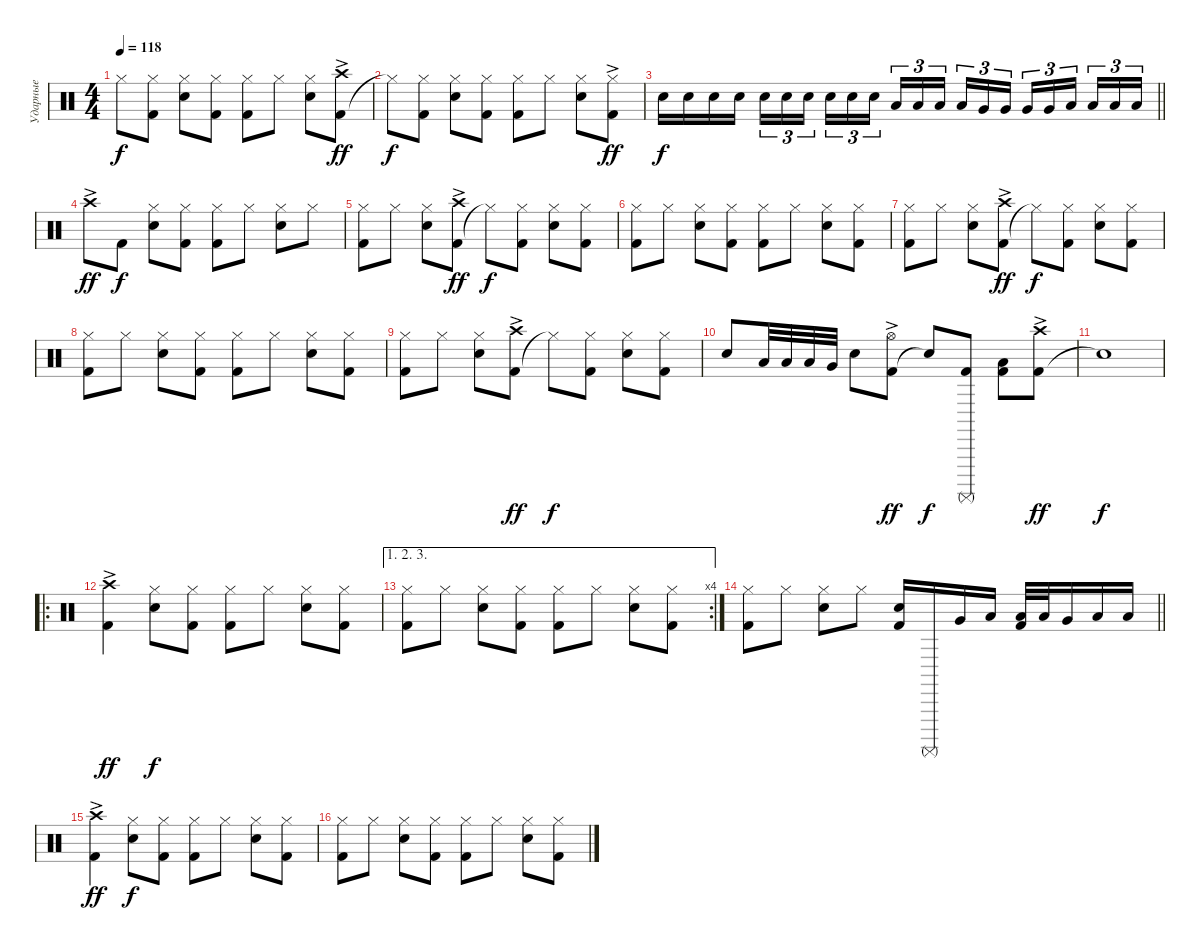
\track ("Ударные" "Ударные") {instrument percussion}
\staff
\articulation defaults
\ts (4 4)
\tempo 118
\clef neutral
\ks c "Hi-Hat (closed)"{t}.8{dy f}
("Kick (hit) 2" "Hi-Hat (closed)").8 ("Snare (hit) 2" "Hi-Hat (closed)").8 ("Kick (hit) 2" "Hi-Hat (closed)").8 ("Kick (hit) 2" "Hi-Hat (closed)").8 "Hi-Hat (closed)".8 ("Snare (hit) 2" "Hi-Hat (closed)").8 ("Kick (hit) 2" "Crash high (hit)"{ac}).8{dy ff} |
"Hi-Hat (closed)"{t}.8{dy f} ("Kick (hit) 2" "Hi-Hat (closed)").8 ("Snare (hit) 2" "Hi-Hat (closed)").8 ("Kick (hit) 2" "Hi-Hat (closed)").8 ("Kick (hit) 2" "Hi-Hat (closed)").8 "Hi-Hat (closed)".8 ("Snare (hit) 2" "Hi-Hat (closed)").8 ("Kick (hit) 2" "Hi-Hat (closed)"{ac}).8{dy ff} |
\barLineRight lightlight "Snare (hit) 2".16{dy f} "Snare (hit) 2".16 "Snare (hit) 2".16 "Snare (hit) 2".16 "Snare (hit) 2".16{tu (3 2)} "Electric Snare (hit)".16{tu (3 2)} "Electric Snare (hit)".16{tu (3 2) beam splitsecondary} "Electric Snare (hit)".16{tu (3 2)} "Electric Snare (hit)".16{tu (3 2)} "Electric Snare (hit)".16{tu (3 2)} "Low Tom (hit)".16{tu (3 2)} "Low Tom (hit)".16{tu (3 2)} "Low Tom (hit)".16{tu (3 2) beam splitsecondary} "Low Tom (hit)".16{tu (3 2)} "Very Low Tom (hit)".16{tu (3 2)} "Very Low Tom (hit)".16{tu (3 2)} "Very Low Tom (hit)".16{tu (3 2)} "Very Low Tom (hit)".16{tu (3 2)} "Low Floor Tom (hit)".16{tu (3 2) beam splitsecondary} "Low Floor Tom (hit)".16{tu (3 2)} "Low Floor Tom (hit)".16{tu (3 2)} "Low Floor Tom (hit)".16{tu (3 2)}
|
"Crash high (hit)"{ac}.8{dy ff} "Kick (hit) 2".8{dy f} ("Snare (hit) 2" "Hi-Hat (closed)").8 ("Kick (hit) 2" "Hi-Hat (closed)").8 ("Kick (hit) 2" "Hi-Hat (closed)").8 "Hi-Hat (closed)".8 ("Snare (hit) 2" "Hi-Hat (closed)").8 "Hi-Hat (closed)".8 |
("Kick (hit) 2" "Hi-Hat (closed)").8 "Hi-Hat (closed)".8 ("Snare (hit) 2" "Hi-Hat (closed)").8 ("Kick (hit) 2" "Crash high (hit)"{ac}).8{dy ff} "Hi-Hat (closed)"{t}.8{dy f} ("Kick (hit) 2" "Hi-Hat (closed)").8 ("Snare (hit) 2" "Hi-Hat (closed)").8 ("Kick (hit) 2" "Hi-Hat (closed)").8 |
("Kick (hit) 2" "Hi-Hat (closed)").8 "Hi-Hat (closed)".8 ("Snare (hit) 2" "Hi-Hat (closed)").8 ("Kick (hit) 2" "Hi-Hat (closed)").8 ("Kick (hit) 2" "Hi-Hat (closed)").8 "Hi-Hat (closed)".8 ("Snare (hit) 2" "Hi-Hat (closed)").8 ("Kick (hit) 2" "Hi-Hat (closed)").8 |
("Kick (hit) 2" "Hi-Hat (closed)").8 "Hi-Hat (closed)".8 ("Snare (hit) 2" "Hi-Hat (closed)").8 ("Kick (hit) 2" "Crash high (hit)"{ac}).8{dy ff} "Hi-Hat (closed)"{t}.8{dy f} ("Kick (hit) 2" "Hi-Hat (closed)").8 ("Snare (hit) 2" "Hi-Hat (closed)").8 ("Kick (hit) 2" "Hi-Hat (closed)").8 |
("Kick (hit) 2" "Hi-Hat (closed)").8 "Hi-Hat (closed)".8 ("Snare (hit) 2" "Hi-Hat (closed)").8 ("Kick (hit) 2" "Hi-Hat (closed)").8 ("Kick (hit) 2" "Hi-Hat (closed)").8 "Hi-Hat (closed)".8 ("Snare (hit) 2" "Hi-Hat (closed)").8 ("Kick (hit) 2" "Hi-Hat (closed)").8 |
("Kick (hit) 2" "Hi-Hat (closed)").8 "Hi-Hat (closed)".8 ("Snare (hit) 2" "Hi-Hat (closed)").8 ("Kick (hit) 2" "Crash high (hit)"{ac}).8{dy ff} "Hi-Hat (closed)"{t}.8{dy f} ("Kick (hit) 2" "Hi-Hat (closed)").8 ("Snare (hit) 2" "Hi-Hat (closed)").8 ("Kick (hit) 2" "Hi-Hat (closed)").8 |
"Snare (hit) 2".8 "Low Tom (hit)".32 "Low Tom (hit)".32 "Low Tom (hit)".32 "Very Low Tom (hit)".32 "Snare (hit) 2".8 ("Kick (hit) 2" "Hi-Hat (open)"{ac}).8{dy ff} "Snare (hit)"{t}.8{dy f} ("Kick (hit) 2" "Surdo (mute)").8 ("Kick (hit) 2" "Low Floor Tom (hit)").8 ("Kick (hit) 2" "Crash high (hit)"{ac}).8{dy ff} |
"Snare (hit) 2"{t}.1{dy f} |
\ro
("Kick (hit) 2" "Crash high (hit)"{ac}).4{dy ff} ("Snare (hit) 2" "Hi-Hat (closed)").8{dy f} ("Kick (hit) 2" "Hi-Hat (closed)").8 ("Kick (hit) 2" "Hi-Hat (closed)").8 "Hi-Hat (closed)".8 ("Snare (hit) 2" "Hi-Hat (closed)").8 ("Kick (hit) 2" "Hi-Hat (closed)").8 |
\ae (1 2 3)
\rc 4
("Kick (hit) 2" "Hi-Hat (closed)").8 "Hi-Hat (closed)".8 ("Snare (hit) 2" "Hi-Hat (closed)").8 ("Kick (hit) 2" "Hi-Hat (closed)").8 ("Kick (hit) 2" "Hi-Hat (closed)").8 "Hi-Hat (closed)".8 ("Snare (hit) 2" "Hi-Hat (closed)").8 ("Kick (hit) 2" "Hi-Hat (closed)").8 |
\barLineRight lightlight
("Kick (hit) 2" "Hi-Hat (closed)").8 "Hi-Hat (closed)".8 ("Snare (hit) 2" "Hi-Hat (closed)").8 "Hi-Hat (closed)".8 ("Kick (hit) 2" "Snare (hit) 2").16 "Surdo (mute)".16 "Very Low Tom (hit)".16 "Low Floor Tom (hit)".16 ("Kick (hit) 2" "Low Tom (hit)").32 "Low Tom (hit)".32 "Very Low Tom (hit)".16 "Low Tom (hit)".16 "Low Floor Tom (hit)".16 |
("Kick (hit) 2" "Crash high (hit)"{ac}).4{dy ff} ("Snare (hit) 2" "Hi-Hat (closed)").8{dy f} ("Kick (hit) 2" "Hi-Hat (closed)").8 ("Kick (hit) 2" "Hi-Hat (closed)").8 "Hi-Hat (closed)".8 ("Snare (hit) 2" "Hi-Hat (closed)").8 ("Kick (hit) 2" "Hi-Hat (closed)").8 |
("Kick (hit) 2" "Hi-Hat (closed)").8 "Hi-Hat (closed)".8 ("Snare (hit) 2" "Hi-Hat (closed)").8 ("Kick (hit) 2" "Hi-Hat (closed)").8 ("Kick (hit) 2" "Hi-Hat (closed)").8 "Hi-Hat (closed)".8 ("Snare (hit) 2" "Hi-Hat (closed)").8 ("Kick (hit) 2" "Hi-Hat (closed)").8
